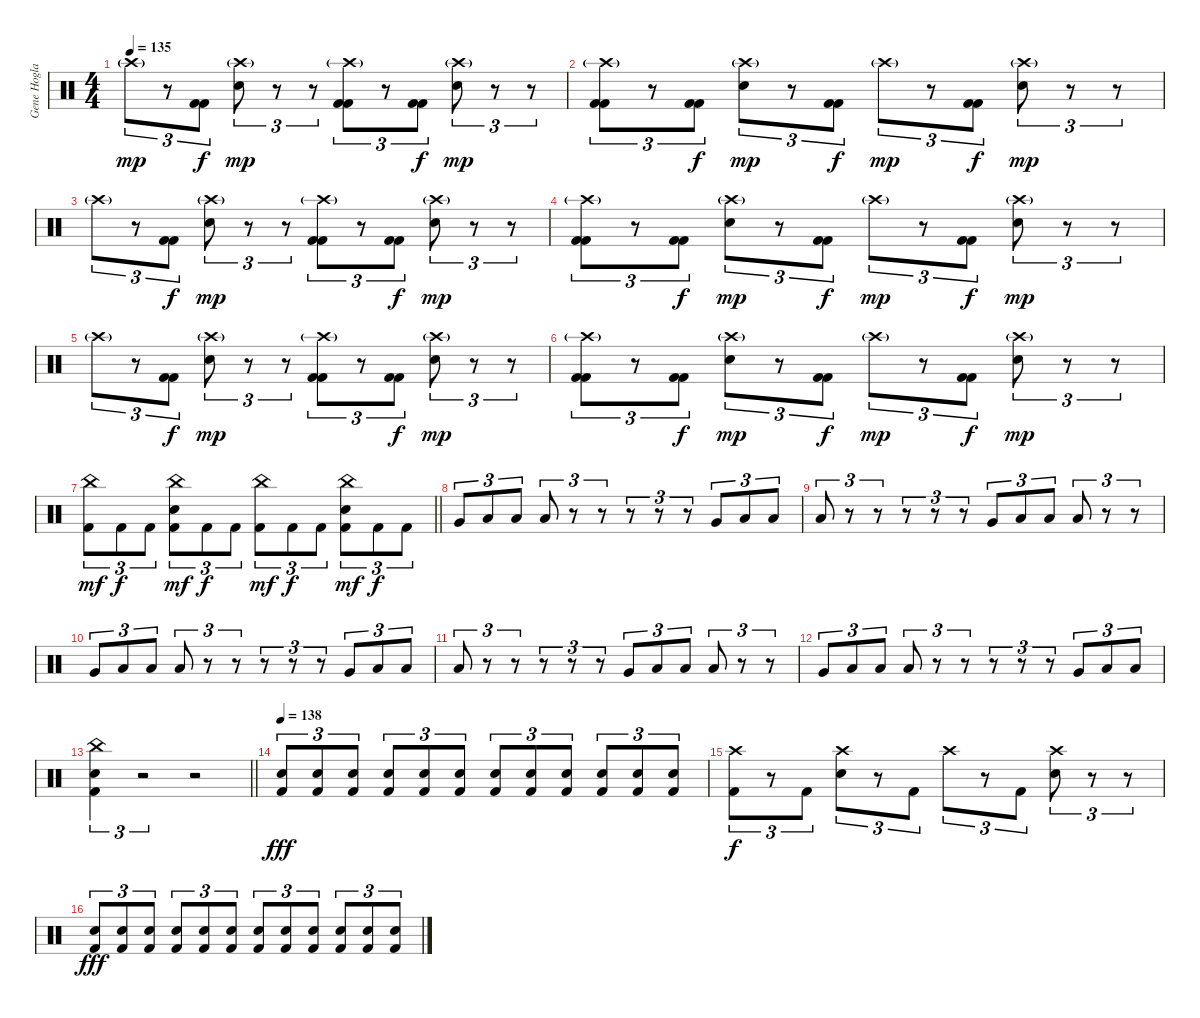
\track ("Gene Hoglan" "Gene Hogla") {instrument percussion}
\staff {score}
\articulation defaults
\ts (4 4)
\tempo 135
\clef neutral
\ks c "Crash high (hit)"{g}.8{tu (3 2) dy mp}
r.8{tu (3 2)} ("Kick (hit) 2" "Kick (hit) 2").8{tu (3 2) dy f} ("Crash high (hit)"{g} "Electric Snare (hit)").8{tu (3 2) dy mp} r.8{tu (3 2)} r.8{tu (3 2)} ("Crash high (hit)"{g} "Kick (hit) 2" "Kick (hit) 2").8{tu (3 2)} r.8{tu (3 2)} ("Kick (hit) 2" "Kick (hit) 2").8{tu (3 2) dy f} ("Crash high (hit)"{g} "Electric Snare (hit)").8{tu (3 2) dy mp} r.8{tu (3 2)} r.8{tu (3 2)} |
("Crash high (hit)"{g} "Kick (hit) 2" "Kick (hit) 2").8{tu (3 2)} r.8{tu (3 2)} ("Kick (hit) 2" "Kick (hit) 2").8{tu (3 2) dy f} ("Crash high (hit)"{g} "Electric Snare (hit)").8{tu (3 2) dy mp} r.8{tu (3 2)} ("Kick (hit) 2" "Kick (hit) 2").8{tu (3 2) dy f} "Crash high (hit)"{g}.8{tu (3 2) dy mp} r.8{tu (3 2)} ("Kick (hit) 2" "Kick (hit) 2").8{tu (3 2) dy f} ("Crash high (hit)"{g} "Electric Snare (hit)").8{tu (3 2) dy mp} r.8{tu (3 2)} r.8{tu (3 2)} |
"Crash high (hit)"{g}.8{tu (3 2)} r.8{tu (3 2)} ("Kick (hit) 2" "Kick (hit) 2").8{tu (3 2) dy f} ("Crash high (hit)"{g} "Electric Snare (hit)").8{tu (3 2) dy mp} r.8{tu (3 2)} r.8{tu (3 2)} ("Crash high (hit)"{g} "Kick (hit) 2" "Kick (hit) 2").8{tu (3 2)} r.8{tu (3 2)} ("Kick (hit) 2" "Kick (hit) 2").8{tu (3 2) dy f} ("Crash high (hit)"{g} "Electric Snare (hit)").8{tu (3 2) dy mp} r.8{tu (3 2)} r.8{tu (3 2)} |
("Crash high (hit)"{g} "Kick (hit) 2" "Kick (hit) 2").8{tu (3 2)} r.8{tu (3 2)} ("Kick (hit) 2" "Kick (hit) 2").8{tu (3 2) dy f} ("Crash high (hit)"{g} "Electric Snare (hit)").8{tu (3 2) dy mp} r.8{tu (3 2)} ("Kick (hit) 2" "Kick (hit) 2").8{tu (3 2) dy f} "Crash high (hit)"{g}.8{tu (3 2) dy mp} r.8{tu (3 2)} ("Kick (hit) 2" "Kick (hit) 2").8{tu (3 2) dy f} ("Crash high (hit)"{g} "Electric Snare (hit)").8{tu (3 2) dy mp} r.8{tu (3 2)} r.8{tu (3 2)} |
"Crash high (hit)"{g}.8{tu (3 2)} r.8{tu (3 2)} ("Kick (hit) 2" "Kick (hit) 2").8{tu (3 2) dy f} ("Crash high (hit)"{g} "Electric Snare (hit)").8{tu (3 2) dy mp} r.8{tu (3 2)} r.8{tu (3 2)} ("Crash high (hit)"{g} "Kick (hit) 2" "Kick (hit) 2").8{tu (3 2)} r.8{tu (3 2)} ("Kick (hit) 2" "Kick (hit) 2").8{tu (3 2) dy f} ("Crash high (hit)"{g} "Electric Snare (hit)").8{tu (3 2) dy mp} r.8{tu (3 2)} r.8{tu (3 2)} |
("Crash high (hit)"{g} "Kick (hit) 2" "Kick (hit) 2").8{tu (3 2)} r.8{tu (3 2)} ("Kick (hit) 2" "Kick (hit) 2").8{tu (3 2) dy f} ("Crash high (hit)"{g} "Electric Snare (hit)").8{tu (3 2) dy mp} r.8{tu (3 2)} ("Kick (hit) 2" "Kick (hit) 2").8{tu (3 2) dy f} "Crash high (hit)"{g}.8{tu (3 2) dy mp} r.8{tu (3 2)} ("Kick (hit) 2" "Kick (hit) 2").8{tu (3 2) dy f} ("Crash high (hit)"{g} "Electric Snare (hit)").8{tu (3 2) dy mp} r.8{tu (3 2)} r.8{tu (3 2)} |
\barLineRight lightlight
("China (hit)" "Kick (hit) 2").8{tu (3 2) dy mf} "Kick (hit) 2".8{tu (3 2) dy f} "Kick (hit) 2".8{tu (3 2)} ("China (hit)" "Electric Snare (hit)" "Kick (hit) 2").8{tu (3 2) dy mf} "Kick (hit) 2".8{tu (3 2) dy f} "Kick (hit) 2".8{tu (3 2)} ("China (hit)" "Kick (hit) 2").8{tu (3 2) dy mf} "Kick (hit) 2".8{tu (3 2) dy f} "Kick (hit) 2".8{tu (3 2)} ("China (hit)" "Electric Snare (hit)" "Kick (hit) 2").8{tu (3 2) dy mf} "Kick (hit) 2".8{tu (3 2) dy f} "Kick (hit) 2".8{tu (3 2)} |
"Very Low Tom (hit)".8{tu (3 2)} "Low Floor Tom (hit)".8{tu (3 2)} "Low Floor Tom (hit)".8{tu (3 2)} "Low Floor Tom (hit)".8{tu (3 2)} r.8{tu (3 2)} r.8{tu (3 2)} r.8{tu (3 2)} r.8{tu (3 2)} r.8{tu (3 2)} "Very Low Tom (hit)".8{tu (3 2)} "Low Floor Tom (hit)".8{tu (3 2)} "Low Floor Tom (hit)".8{tu (3 2)} |
"Low Floor Tom (hit)".8{tu (3 2)} r.8{tu (3 2)} r.8{tu (3 2)} r.8{tu (3 2)} r.8{tu (3 2)} r.8{tu (3 2)} "Very Low Tom (hit)".8{tu (3 2)} "Low Floor Tom (hit)".8{tu (3 2)} "Low Floor Tom (hit)".8{tu (3 2)} "Low Floor Tom (hit)".8{tu (3 2)} r.8{tu (3 2)} r.8{tu (3 2)} |
"Very Low Tom (hit)".8{tu (3 2)} "Low Floor Tom (hit)".8{tu (3 2)} "Low Floor Tom (hit)".8{tu (3 2)} "Low Floor Tom (hit)".8{tu (3 2)} r.8{tu (3 2)} r.8{tu (3 2)} r.8{tu (3 2)} r.8{tu (3 2)} r.8{tu (3 2)} "Very Low Tom (hit)".8{tu (3 2)} "Low Floor Tom (hit)".8{tu (3 2)} "Low Floor Tom (hit)".8{tu (3 2)} |
"Low Floor Tom (hit)".8{tu (3 2)} r.8{tu (3 2)} r.8{tu (3 2)} r.8{tu (3 2)} r.8{tu (3 2)} r.8{tu (3 2)} "Very Low Tom (hit)".8{tu (3 2)} "Low Floor Tom (hit)".8{tu (3 2)} "Low Floor Tom (hit)".8{tu (3 2)} "Low Floor Tom (hit)".8{tu (3 2)} r.8{tu (3 2)} r.8{tu (3 2)} |
"Very Low Tom (hit)".8{tu (3 2)} "Low Floor Tom (hit)".8{tu (3 2)} "Low Floor Tom (hit)".8{tu (3 2)} "Low Floor Tom (hit)".8{tu (3 2)} r.8{tu (3 2)} r.8{tu (3 2)} r.8{tu (3 2)} r.8{tu (3 2)} r.8{tu (3 2)} "Very Low Tom (hit)".8{tu (3 2)} "Low Floor Tom (hit)".8{tu (3 2)} "Low Floor Tom (hit)".8{tu (3 2)} |
\barLineRight lightlight
("China (hit)" "Electric Snare (hit)" "Kick (hit) 2").4{tu (3 2)} r.2{tu (3 2)} r.2 |
\tempo 138
("Electric Snare (hit)" "Kick (hit) 2").8{tu (3 2) dy fff} ("Electric Snare (hit)" "Kick (hit) 2").8{tu (3 2)} ("Electric Snare (hit)" "Kick (hit) 2").8{tu (3 2)} ("Electric Snare (hit)" "Kick (hit) 2").8{tu (3 2)} ("Electric Snare (hit)" "Kick (hit) 2").8{tu (3 2)} ("Electric Snare (hit)" "Kick (hit) 2").8{tu (3 2)} ("Electric Snare (hit)" "Kick (hit) 2").8{tu (3 2)} ("Electric Snare (hit)" "Kick (hit) 2").8{tu (3 2)} ("Electric Snare (hit)" "Kick (hit) 2").8{tu (3 2)} ("Electric Snare (hit)" "Kick (hit) 2").8{tu (3 2)} ("Electric Snare (hit)" "Kick (hit) 2").8{tu (3 2)} ("Electric Snare (hit)" "Kick (hit) 2").8{tu (3 2)} |
("Crash high (hit)" "Kick (hit) 2").8{tu (3 2) dy f} r.8{tu (3 2)} "Kick (hit) 2".8{tu (3 2)} ("Crash high (hit)" "Electric Snare (hit)").8{tu (3 2)} r.8{tu (3 2)} "Kick (hit) 2".8{tu (3 2)} "Crash high (hit)".8{tu (3 2)} r.8{tu (3 2)} "Kick (hit) 2".8{tu (3 2)} ("Crash high (hit)" "Electric Snare (hit)").8{tu (3 2)} r.8{tu (3 2)} r.8{tu (3 2)} |
("Electric Snare (hit)" "Kick (hit) 2").8{tu (3 2) dy fff} ("Electric Snare (hit)" "Kick (hit) 2").8{tu (3 2)} ("Electric Snare (hit)" "Kick (hit) 2").8{tu (3 2)} ("Electric Snare (hit)" "Kick (hit) 2").8{tu (3 2)} ("Electric Snare (hit)" "Kick (hit) 2").8{tu (3 2)} ("Electric Snare (hit)" "Kick (hit) 2").8{tu (3 2)} ("Electric Snare (hit)" "Kick (hit) 2").8{tu (3 2)} ("Electric Snare (hit)" "Kick (hit) 2").8{tu (3 2)} ("Electric Snare (hit)" "Kick (hit) 2").8{tu (3 2)} ("Electric Snare (hit)" "Kick (hit) 2").8{tu (3 2)} ("Electric Snare (hit)" "Kick (hit) 2").8{tu (3 2)} ("Electric Snare (hit)" "Kick (hit) 2").8{tu (3 2)}
